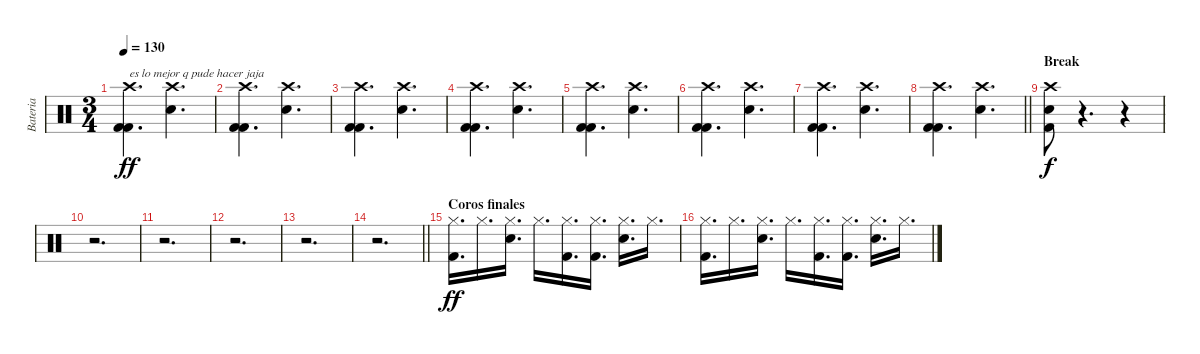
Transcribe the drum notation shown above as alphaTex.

\track ("Bateria" "Bateria") {instrument percussion}
\staff {score}
\articulation defaults
\ts (3 4)
\tempo 130
\clef neutral
\ks c
("Crash high (hit)" "Kick (hit) 2" "Kick (hit) 2").4{d txt "es lo mejor q pude hacer jaja" dy ff} ("Crash high (hit)" "Snare (hit) 2").4{d} |
("Crash high (hit)" "Kick (hit) 2" "Kick (hit) 2").4{d} ("Crash high (hit)" "Snare (hit) 2").4{d} |
("Crash high (hit)" "Kick (hit) 2" "Kick (hit) 2").4{d} ("Crash high (hit)" "Snare (hit) 2").4{d} |
("Crash high (hit)" "Kick (hit) 2" "Kick (hit) 2").4{d} ("Crash high (hit)" "Snare (hit) 2").4{d} |
("Crash high (hit)" "Kick (hit) 2" "Kick (hit) 2").4{d} ("Crash high (hit)" "Snare (hit) 2").4{d} |
("Crash high (hit)" "Kick (hit) 2" "Kick (hit) 2").4{d} ("Crash high (hit)" "Snare (hit) 2").4{d} |
("Crash high (hit)" "Kick (hit) 2" "Kick (hit) 2").4{d} ("Crash high (hit)" "Snare (hit) 2").4{d} |
\barLineRight lightlight
("Crash high (hit)" "Kick (hit) 2" "Kick (hit) 2").4{d} ("Crash high (hit)" "Snare (hit) 2").4{d} |
\section ("" "Break")
("Crash high (hit)" "Snare (hit) 2" "Kick (hit) 2").8{dy f} r.4{d} r.4 |
r.2{d} |
r.2{d} |
r.2{d} |
r.2{d} |
\barLineRight lightlight
r.2{d} |
\section ("" "Coros finales")
("Hi-Hat (closed)" "Kick (hit) 2").16{d dy ff} "Hi-Hat (closed)".16{d} ("Hi-Hat (closed)" "Snare (hit) 2").16{d} "Hi-Hat (closed)".16{d} ("Hi-Hat (closed)" "Kick (hit) 2").16{d} ("Hi-Hat (closed)" "Kick (hit) 2").16{d} ("Hi-Hat (closed)" "Snare (hit) 2").16{d} "Hi-Hat (closed)".16{d} |
("Hi-Hat (closed)" "Kick (hit) 2").16{d} "Hi-Hat (closed)".16{d} ("Hi-Hat (closed)" "Snare (hit) 2").16{d} "Hi-Hat (closed)".16{d} ("Hi-Hat (closed)" "Kick (hit) 2").16{d} ("Hi-Hat (closed)" "Kick (hit) 2").16{d} ("Hi-Hat (closed)" "Snare (hit) 2").16{d} "Hi-Hat (closed)".16{d}
